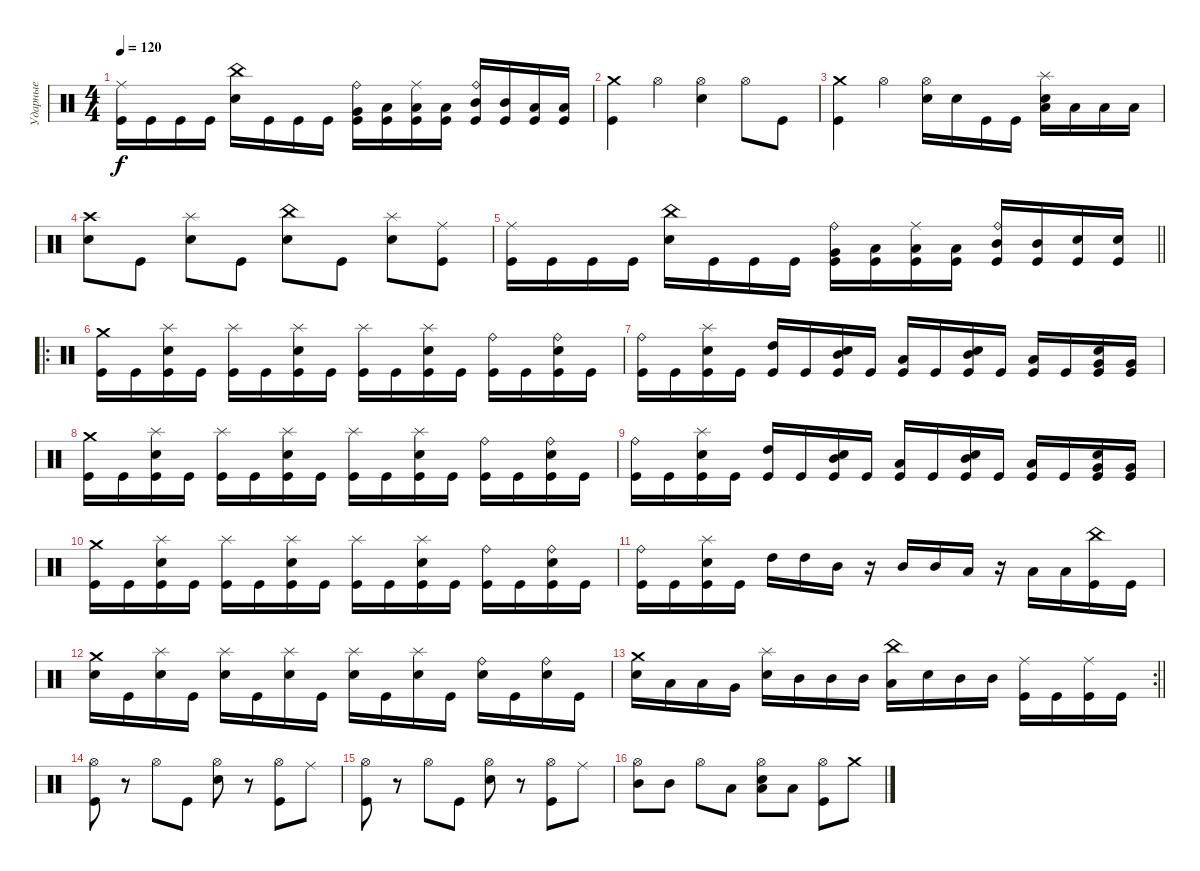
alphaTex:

\track ("Ударные" "Ударные") {instrument percussion}
\staff {score}
\articulation defaults
\ts (4 4)
\tempo 120
\clef neutral
\ks c
("Ride (middle)" "Kick (hit)").16{dy f} "Kick (hit)".16 "Kick (hit)".16 "Kick (hit)".16 ("China (hit)" "Electric Snare (hit)").16 "Kick (hit)".16 "Kick (hit)".16 "Kick (hit)".16 ("Ride (bell)" "Kick (hit)" "Very Low Tom (hit)").16 ("Kick (hit)" "Low Tom (hit)").16 ("Ride (middle)" "Kick (hit)" "Low Tom (hit)").16 ("Kick (hit)" "Low Tom (hit)").16 ("Ride (bell)" "Kick (hit)" "Mid Tom (hit)").16 ("Kick (hit)" "Mid Tom (hit)").16 ("Kick (hit)" "Low Tom (hit)").16 ("Kick (hit)" "Low Tom (hit)").16 |
("Crash medium (hit)" "Kick (hit)").4 "Hi-Hat (open)".4 ("Hi-Hat (open)" "Electric Snare (hit)").4 "Hi-Hat (open)".8 "Kick (hit)".8 |
("Crash medium (hit)" "Kick (hit)").4 "Hi-Hat (open)".4 ("Hi-Hat (open)" "Electric Snare (hit)").16 "Electric Snare (hit)".16 "Kick (hit)".16 "Kick (hit)".16 ("Splash (hit)" "Electric Snare (hit)" "Low Tom (hit)").16 "Low Tom (hit)".16 "Low Tom (hit)".16 "Low Tom (hit)".16 |
("Crash high (hit)" "Electric Snare (hit)").8 "Kick (hit)".8 ("Splash (hit)" "Electric Snare (hit)").8 "Kick (hit)".8 ("China (hit)" "Electric Snare (hit)").8 "Kick (hit)".8 ("Splash (hit)" "Electric Snare (hit)").8 ("Ride (middle)" "Kick (hit)").8 |
\barLineRight lightlight
("Ride (middle)" "Kick (hit)").16 "Kick (hit)".16 "Kick (hit)".16 "Kick (hit)".16 ("China (hit)" "Electric Snare (hit)").16 "Kick (hit)".16 "Kick (hit)".16 "Kick (hit)".16 ("Ride (bell)" "Kick (hit)" "Very Low Tom (hit)").16 ("Kick (hit)" "Low Tom (hit)").16 ("Ride (middle)" "Kick (hit)" "Low Tom (hit)").16 ("Kick (hit)" "Low Tom (hit)").16 ("Ride (bell)" "Kick (hit)" "Mid Tom (hit)").16 ("Kick (hit)" "Mid Tom (hit)").16 ("Kick (hit)" "Electric Snare (hit)").16 ("Kick (hit)" "Electric Snare (hit)").16 |
\ro
\section ("" " ")
("Crash medium (hit)" "Kick (hit)").16 "Kick (hit)".16 ("Splash (hit)" "Electric Snare (hit)" "Kick (hit)").16 "Kick (hit)".16 ("Splash (hit)" "Kick (hit)").16 "Kick (hit)".16 ("Splash (hit)" "Electric Snare (hit)" "Kick (hit)").16 "Kick (hit)".16 ("Splash (hit)" "Kick (hit)").16 "Kick (hit)".16 ("Splash (hit)" "Electric Snare (hit)" "Kick (hit)").16 "Kick (hit)".16 ("Ride (bell)" "Kick (hit)").16 "Kick (hit)".16 ("Ride (bell)" "Electric Snare (hit)" "Kick (hit)").16 "Kick (hit)".16 |
("Ride (bell)" "Kick (hit)").16 "Kick (hit)".16 ("Splash (hit)" "Electric Snare (hit)" "Kick (hit)").16 "Kick (hit)".16 ("High Tom (hit)" "Kick (hit)").16 "Kick (hit)".16 ("Mid Tom (hit)" "Electric Snare (hit)" "Kick (hit)").16 "Kick (hit)".16 ("Low Tom (hit)" "Kick (hit)").16 "Kick (hit)".16 ("Mid Tom (hit)" "Electric Snare (hit)" "Kick (hit)").16 "Kick (hit)".16 ("Low Tom (hit)" "Kick (hit)").16 "Kick (hit)".16 ("Very Low Tom (hit)" "Electric Snare (hit)" "Kick (hit)").16 ("Very Low Tom (hit)" "Kick (hit)").16 |
("Crash medium (hit)" "Kick (hit)").16 "Kick (hit)".16 ("Splash (hit)" "Electric Snare (hit)" "Kick (hit)").16 "Kick (hit)".16 ("Splash (hit)" "Kick (hit)").16 "Kick (hit)".16 ("Splash (hit)" "Electric Snare (hit)" "Kick (hit)").16 "Kick (hit)".16 ("Splash (hit)" "Kick (hit)").16 "Kick (hit)".16 ("Splash (hit)" "Electric Snare (hit)" "Kick (hit)").16 "Kick (hit)".16 ("Ride (bell)" "Kick (hit)").16 "Kick (hit)".16 ("Ride (bell)" "Electric Snare (hit)" "Kick (hit)").16 "Kick (hit)".16 |
("Ride (bell)" "Kick (hit)").16 "Kick (hit)".16 ("Splash (hit)" "Electric Snare (hit)" "Kick (hit)").16 "Kick (hit)".16 ("High Tom (hit)" "Kick (hit)").16 "Kick (hit)".16 ("Mid Tom (hit)" "Electric Snare (hit)" "Kick (hit)").16 "Kick (hit)".16 ("Low Tom (hit)" "Kick (hit)").16 "Kick (hit)".16 ("Mid Tom (hit)" "Electric Snare (hit)" "Kick (hit)").16 "Kick (hit)".16 ("Low Tom (hit)" "Kick (hit)").16 "Kick (hit)".16 ("Very Low Tom (hit)" "Electric Snare (hit)" "Kick (hit)").16 ("Very Low Tom (hit)" "Kick (hit)").16 |
("Crash medium (hit)" "Kick (hit)").16 "Kick (hit)".16 ("Splash (hit)" "Electric Snare (hit)" "Kick (hit)").16 "Kick (hit)".16 ("Splash (hit)" "Kick (hit)").16 "Kick (hit)".16 ("Splash (hit)" "Electric Snare (hit)" "Kick (hit)").16 "Kick (hit)".16 ("Splash (hit)" "Kick (hit)").16 "Kick (hit)".16 ("Splash (hit)" "Electric Snare (hit)" "Kick (hit)").16 "Kick (hit)".16 ("Ride (bell)" "Kick (hit)").16 "Kick (hit)".16 ("Ride (bell)" "Electric Snare (hit)" "Kick (hit)").16 "Kick (hit)".16 |
("Ride (bell)" "Kick (hit)").16 "Kick (hit)".16 ("Splash (hit)" "Electric Snare (hit)" "Kick (hit)").16 "Kick (hit)".16 "High Tom (hit)".16 "High Tom (hit)".16 "Mid Tom (hit)".16 r.16 "Mid Tom (hit)".16 "Mid Tom (hit)".16 "Low Tom (hit)".16 r.16 "Low Tom (hit)".16 "Low Tom (hit)".16 ("China (hit)" "Kick (hit)").16 "Kick (hit)".16 |
("Crash medium (hit)" "Electric Snare (hit)").16 "Kick (hit)".16 ("Splash (hit)" "Electric Snare (hit)").16 "Kick (hit)".16 ("Splash (hit)" "Electric Snare (hit)").16 "Kick (hit)".16 ("Splash (hit)" "Electric Snare (hit)").16 "Kick (hit)".16 ("Splash (hit)" "Electric Snare (hit)").16 "Kick (hit)".16 ("Splash (hit)" "Electric Snare (hit)").16 "Kick (hit)".16 ("Ride (bell)" "Electric Snare (hit)").16 "Kick (hit)".16 ("Ride (bell)" "Electric Snare (hit)").16 "Kick (hit)".16 |
\rc 2
\barLineRight lightlight
("Crash medium (hit)" "Electric Snare (hit)").16 "Low Tom (hit)".16 "Low Tom (hit)".16 "Very Low Tom (hit)".16 ("Splash (hit)" "Electric Snare (hit)").16 "Mid Tom (hit)".16 "Mid Tom (hit)".16 "Mid Tom (hit)".16 ("China (hit)" "Low Tom (hit)").16 "Electric Snare (hit)".16 "Mid Tom (hit)".16 "Mid Tom (hit)".16 ("Ride (middle)" "Kick (hit)").16 "Kick (hit)".16 ("Ride (middle)" "Kick (hit)").16 "Kick (hit)".16 |
\section ("" " ")
("Kick (hit)" "Hi-Hat (open)").8 r.8 "Hi-Hat (open)".8 "Kick (hit)".8 ("Electric Snare (hit)" "Hi-Hat (open)").8 r.8 ("Kick (hit)" "Hi-Hat (open)").8 "Ride (middle)".8 |
("Kick (hit)" "Hi-Hat (open)").8 r.8 "Hi-Hat (open)".8 "Kick (hit)".8 ("Electric Snare (hit)" "Hi-Hat (open)").8 r.8 ("Kick (hit)" "Hi-Hat (open)").8 "Ride (middle)".8 |
("Mid Tom (hit)" "Hi-Hat (open)").8 "Mid Tom (hit)".8 "Hi-Hat (open)".8 "Low Tom (hit)".8 ("Low Tom (hit)" "Electric Snare (hit)" "Hi-Hat (open)").8 "Low Tom (hit)".8 ("Kick (hit)" "Hi-Hat (open)").8 "Crash medium (hit)".8
